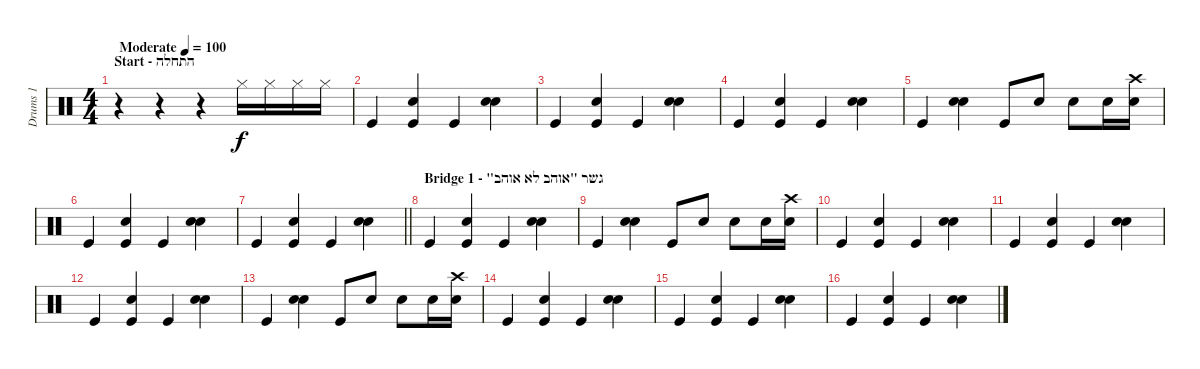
\track ("Drums 1" "Drums 1") {instrument percussion}
\staff {score}
\articulation defaults
\ts (4 4)
\section ("" "Start - התחלה")
\tempo (100 "Moderate")
\clef neutral
\ks c
r.4{dy f} r.4 r.4 "Hi-Hat (closed)".16 "Hi-Hat (closed)".16 "Hi-Hat (closed)".16 "Hi-Hat (closed)".16 |
"Kick (hit)".4 ("Electric Snare (hit)" "Kick (hit)").4 "Kick (hit)".4 ("Electric Snare (hit)" "Snare (hit) 2").4 |
"Kick (hit)".4 ("Electric Snare (hit)" "Kick (hit)").4 "Kick (hit)".4 ("Electric Snare (hit)" "Snare (hit) 2").4 |
"Kick (hit)".4 ("Electric Snare (hit)" "Kick (hit)").4 "Kick (hit)".4 ("Electric Snare (hit)" "Snare (hit) 2").4 |
"Kick (hit)".4 ("Electric Snare (hit)" "Snare (hit) 2").4 "Kick (hit)".8 "Electric Snare (hit)".8 "Electric Snare (hit)".8 "Electric Snare (hit)".16 ("Electric Snare (hit)" "Crash high (hit)").16 |
"Kick (hit)".4 ("Electric Snare (hit)" "Kick (hit)").4 "Kick (hit)".4 ("Electric Snare (hit)" "Snare (hit) 2").4 |
\barLineRight lightlight "Kick (hit)".4
("Electric Snare (hit)" "Kick (hit)").4 "Kick (hit)".4 ("Electric Snare (hit)" "Snare (hit) 2").4 |
\section ("" "Bridge 1 - \"גשר \"אוהב לא אוהב")
"Kick (hit)".4 ("Electric Snare (hit)" "Kick (hit)").4 "Kick (hit)".4 ("Electric Snare (hit)" "Snare (hit) 2").4 |
"Kick (hit)".4 ("Electric Snare (hit)" "Snare (hit) 2").4 "Kick (hit)".8 "Electric Snare (hit)".8 "Electric Snare (hit)".8 "Electric Snare (hit)".16 ("Electric Snare (hit)" "Crash high (hit)").16 |
"Kick (hit)".4 ("Electric Snare (hit)" "Kick (hit)").4 "Kick (hit)".4 ("Electric Snare (hit)" "Snare (hit) 2").4 |
"Kick (hit)".4 ("Electric Snare (hit)" "Kick (hit)").4 "Kick (hit)".4 ("Electric Snare (hit)" "Snare (hit) 2").4 |
"Kick (hit)".4 ("Electric Snare (hit)" "Kick (hit)").4 "Kick (hit)".4 ("Electric Snare (hit)" "Snare (hit) 2").4 |
"Kick (hit)".4 ("Electric Snare (hit)" "Snare (hit) 2").4 "Kick (hit)".8 "Electric Snare (hit)".8 "Electric Snare (hit)".8 "Electric Snare (hit)".16 ("Electric Snare (hit)" "Crash high (hit)").16 |
"Kick (hit)".4 ("Electric Snare (hit)" "Kick (hit)").4 "Kick (hit)".4 ("Electric Snare (hit)" "Snare (hit) 2").4 |
"Kick (hit)".4 ("Electric Snare (hit)" "Kick (hit)").4 "Kick (hit)".4 ("Electric Snare (hit)" "Snare (hit) 2").4 |
"Kick (hit)".4 ("Electric Snare (hit)" "Kick (hit)").4 "Kick (hit)".4 ("Electric Snare (hit)" "Snare (hit) 2").4
